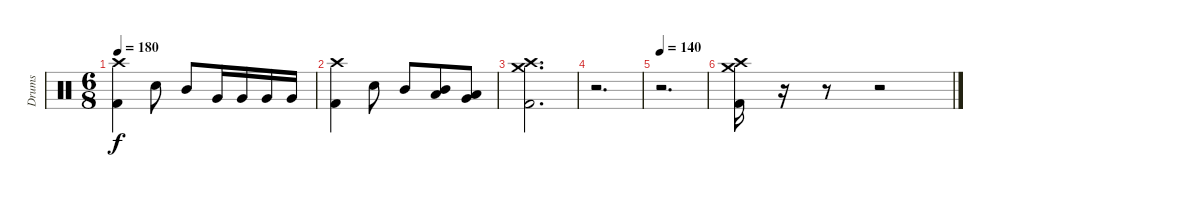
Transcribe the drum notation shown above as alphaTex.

\track ("Drums" "Drums") {instrument percussion}
\staff {score}
\articulation defaults
\ts (6 8)
\tempo 180
\clef neutral
\ks c
("Crash high (hit)" "Kick (hit) 2").4{dy f} "Snare (hit) 2".8 "Mid Tom (hit)".8 "Very Low Tom (hit)".16 "Very Low Tom (hit)".16 "Very Low Tom (hit)".16 "Very Low Tom (hit)".16 |
("Crash high (hit)" "Kick (hit) 2").4 "Snare (hit) 2".8 "Mid Tom (hit)".8 ("Mid Tom (hit)" "Low Tom (hit)").8 ("Low Tom (hit)" "Very Low Tom (hit)").8 |
("Crash high (hit)" "Crash medium (hit)" "Kick (hit) 2").2{d} |
r.2{d} |
\tempo 140
r.2{d} |
("Crash high (hit)" "Crash medium (hit)" "Kick (hit) 2").16 r.16 r.8 r.2
